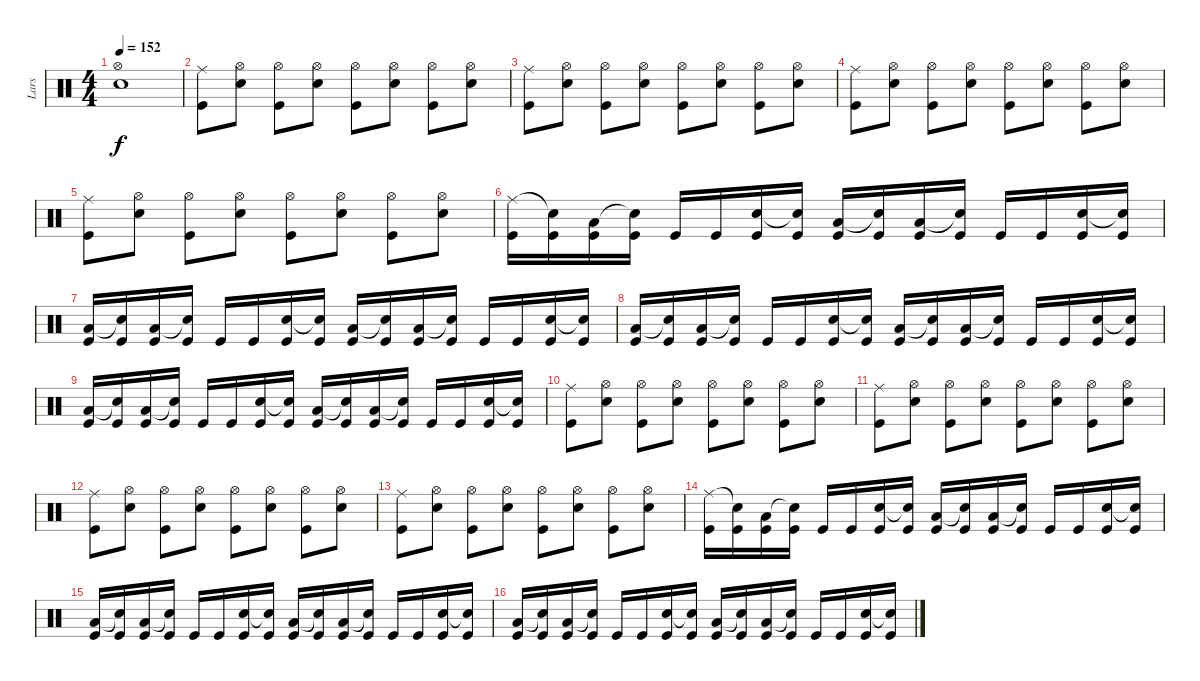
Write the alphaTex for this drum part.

\track ("Lars" "Lars") {instrument percussion}
\staff {score}
\articulation defaults
\ts (4 4)
\tempo 152
\clef neutral
\ks c
("Hi-Hat (open)" "Snare (hit) 2").1{dy f} |
("Ride (middle)" "Kick (hit)").8 ("Hi-Hat (open)" "Snare (hit) 2").8 ("Hi-Hat (open)" "Kick (hit)").8 ("Hi-Hat (open)" "Snare (hit) 2").8 ("Hi-Hat (open)" "Kick (hit)").8 ("Hi-Hat (open)" "Snare (hit) 2").8 ("Hi-Hat (open)" "Kick (hit)").8 ("Hi-Hat (open)" "Snare (hit) 2").8 |
("Ride (middle)" "Kick (hit)").8 ("Hi-Hat (open)" "Snare (hit) 2").8 ("Hi-Hat (open)" "Kick (hit)").8 ("Hi-Hat (open)" "Snare (hit) 2").8 ("Hi-Hat (open)" "Kick (hit)").8 ("Hi-Hat (open)" "Snare (hit) 2").8 ("Hi-Hat (open)" "Kick (hit)").8 ("Hi-Hat (open)" "Snare (hit) 2").8 |
("Ride (middle)" "Kick (hit)").8 ("Hi-Hat (open)" "Snare (hit) 2").8 ("Hi-Hat (open)" "Kick (hit)").8 ("Hi-Hat (open)" "Snare (hit) 2").8 ("Hi-Hat (open)" "Kick (hit)").8 ("Hi-Hat (open)" "Snare (hit) 2").8 ("Hi-Hat (open)" "Kick (hit)").8 ("Hi-Hat (open)" "Snare (hit) 2").8 |
("Ride (middle)" "Kick (hit)").8 ("Hi-Hat (open)" "Snare (hit) 2").8 ("Hi-Hat (open)" "Kick (hit)").8 ("Hi-Hat (open)" "Snare (hit) 2").8 ("Hi-Hat (open)" "Kick (hit)").8 ("Hi-Hat (open)" "Snare (hit) 2").8 ("Hi-Hat (open)" "Kick (hit)").8 ("Hi-Hat (open)" "Snare (hit) 2").8 |
("Ride (middle)" "Kick (hit)").16 ("Snare (hit)"{t} "Kick (hit)").16 ("Low Tom (hit)" "Kick (hit)").16 ("Snare (hit)"{t} "Kick (hit)").16 "Kick (hit)".16 "Kick (hit)".16 ("Snare (hit) 2" "Kick (hit)").16 ("Snare (hit)"{t} "Kick (hit)").16 ("Low Tom (hit)" "Kick (hit)").16 ("Snare (hit)"{t} "Kick (hit)").16 ("Low Tom (hit)" "Kick (hit)").16 ("Snare (hit)"{t} "Kick (hit)").16 "Kick (hit)".16 "Kick (hit)".16 ("Snare (hit) 2" "Kick (hit)").16 ("Snare (hit)"{t} "Kick (hit)").16 |
("Low Tom (hit)" "Kick (hit)").16 ("Snare (hit)"{t} "Kick (hit)").16 ("Low Tom (hit)" "Kick (hit)").16 ("Snare (hit)"{t} "Kick (hit)").16 "Kick (hit)".16 "Kick (hit)".16 ("Snare (hit) 2" "Kick (hit)").16 ("Snare (hit)"{t} "Kick (hit)").16 ("Low Tom (hit)" "Kick (hit)").16 ("Snare (hit)"{t} "Kick (hit)").16 ("Low Tom (hit)" "Kick (hit)").16 ("Snare (hit)"{t} "Kick (hit)").16 "Kick (hit)".16 "Kick (hit)".16 ("Snare (hit) 2" "Kick (hit)").16 ("Snare (hit)"{t} "Kick (hit)").16 |
("Low Tom (hit)" "Kick (hit)").16 ("Snare (hit)"{t} "Kick (hit)").16 ("Low Tom (hit)" "Kick (hit)").16 ("Snare (hit)"{t} "Kick (hit)").16 "Kick (hit)".16 "Kick (hit)".16 ("Snare (hit) 2" "Kick (hit)").16 ("Snare (hit)"{t} "Kick (hit)").16 ("Low Tom (hit)" "Kick (hit)").16 ("Snare (hit)"{t} "Kick (hit)").16 ("Low Tom (hit)" "Kick (hit)").16 ("Snare (hit)"{t} "Kick (hit)").16 "Kick (hit)".16 "Kick (hit)".16 ("Snare (hit) 2" "Kick (hit)").16 ("Snare (hit)"{t} "Kick (hit)").16 |
("Low Tom (hit)" "Kick (hit)").16 ("Snare (hit)"{t} "Kick (hit)").16 ("Low Tom (hit)" "Kick (hit)").16 ("Snare (hit)"{t} "Kick (hit)").16 "Kick (hit)".16 "Kick (hit)".16 ("Snare (hit) 2" "Kick (hit)").16 ("Snare (hit)"{t} "Kick (hit)").16 ("Low Tom (hit)" "Kick (hit)").16 ("Snare (hit)"{t} "Kick (hit)").16 ("Low Tom (hit)" "Kick (hit)").16 ("Snare (hit)"{t} "Kick (hit)").16 "Kick (hit)".16 "Kick (hit)".16 ("Snare (hit) 2" "Kick (hit)").16 ("Snare (hit)"{t} "Kick (hit)").16 |
("Ride (middle)" "Kick (hit)").8 ("Hi-Hat (open)" "Snare (hit) 2").8 ("Hi-Hat (open)" "Kick (hit)").8 ("Hi-Hat (open)" "Snare (hit) 2").8 ("Hi-Hat (open)" "Kick (hit)").8 ("Hi-Hat (open)" "Snare (hit) 2").8 ("Hi-Hat (open)" "Kick (hit)").8 ("Hi-Hat (open)" "Snare (hit) 2").8 |
("Ride (middle)" "Kick (hit)").8 ("Hi-Hat (open)" "Snare (hit) 2").8 ("Hi-Hat (open)" "Kick (hit)").8 ("Hi-Hat (open)" "Snare (hit) 2").8 ("Hi-Hat (open)" "Kick (hit)").8 ("Hi-Hat (open)" "Snare (hit) 2").8 ("Hi-Hat (open)" "Kick (hit)").8 ("Hi-Hat (open)" "Snare (hit) 2").8 |
("Ride (middle)" "Kick (hit)").8 ("Hi-Hat (open)" "Snare (hit) 2").8 ("Hi-Hat (open)" "Kick (hit)").8 ("Hi-Hat (open)" "Snare (hit) 2").8 ("Hi-Hat (open)" "Kick (hit)").8 ("Hi-Hat (open)" "Snare (hit) 2").8 ("Hi-Hat (open)" "Kick (hit)").8 ("Hi-Hat (open)" "Snare (hit) 2").8 |
("Ride (middle)" "Kick (hit)").8 ("Hi-Hat (open)" "Snare (hit) 2").8 ("Hi-Hat (open)" "Kick (hit)").8 ("Hi-Hat (open)" "Snare (hit) 2").8 ("Hi-Hat (open)" "Kick (hit)").8 ("Hi-Hat (open)" "Snare (hit) 2").8 ("Hi-Hat (open)" "Kick (hit)").8 ("Hi-Hat (open)" "Snare (hit) 2").8 |
("Ride (middle)" "Kick (hit)").16 ("Snare (hit)"{t} "Kick (hit)").16 ("Low Tom (hit)" "Kick (hit)").16 ("Snare (hit)"{t} "Kick (hit)").16 "Kick (hit)".16 "Kick (hit)".16 ("Snare (hit) 2" "Kick (hit)").16 ("Snare (hit)"{t} "Kick (hit)").16 ("Low Tom (hit)" "Kick (hit)").16 ("Snare (hit)"{t} "Kick (hit)").16 ("Low Tom (hit)" "Kick (hit)").16 ("Snare (hit)"{t} "Kick (hit)").16 "Kick (hit)".16 "Kick (hit)".16 ("Snare (hit) 2" "Kick (hit)").16 ("Snare (hit)"{t} "Kick (hit)").16 |
("Low Tom (hit)" "Kick (hit)").16 ("Snare (hit)"{t} "Kick (hit)").16 ("Low Tom (hit)" "Kick (hit)").16 ("Snare (hit)"{t} "Kick (hit)").16 "Kick (hit)".16 "Kick (hit)".16 ("Snare (hit) 2" "Kick (hit)").16 ("Snare (hit)"{t} "Kick (hit)").16 ("Low Tom (hit)" "Kick (hit)").16 ("Snare (hit)"{t} "Kick (hit)").16 ("Low Tom (hit)" "Kick (hit)").16 ("Snare (hit)"{t} "Kick (hit)").16 "Kick (hit)".16 "Kick (hit)".16 ("Snare (hit) 2" "Kick (hit)").16 ("Snare (hit)"{t} "Kick (hit)").16 |
("Low Tom (hit)" "Kick (hit)").16 ("Snare (hit)"{t} "Kick (hit)").16 ("Low Tom (hit)" "Kick (hit)").16 ("Snare (hit)"{t} "Kick (hit)").16 "Kick (hit)".16 "Kick (hit)".16 ("Snare (hit) 2" "Kick (hit)").16 ("Snare (hit)"{t} "Kick (hit)").16 ("Low Tom (hit)" "Kick (hit)").16 ("Snare (hit)"{t} "Kick (hit)").16 ("Low Tom (hit)" "Kick (hit)").16 ("Snare (hit)"{t} "Kick (hit)").16 "Kick (hit)".16 "Kick (hit)".16 ("Snare (hit) 2" "Kick (hit)").16 ("Snare (hit)"{t} "Kick (hit)").16
